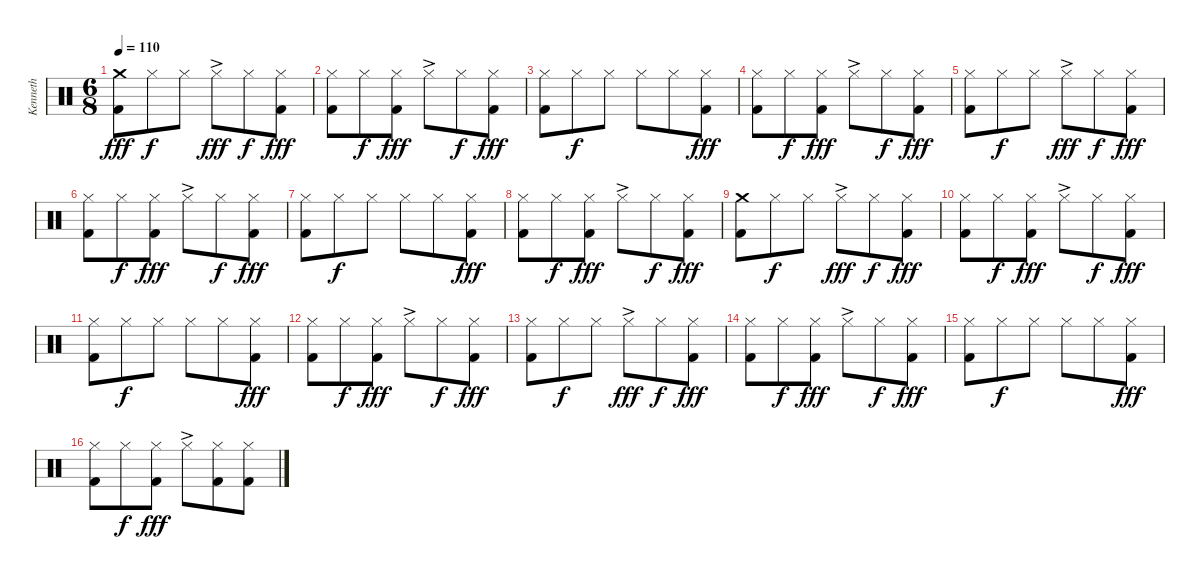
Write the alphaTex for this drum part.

\track ("Kenneth" "Kenneth") {instrument percussion}
\staff {score}
\articulation defaults
\ts (6 8)
\tempo 110
\clef neutral
\ks c
("Crash medium (hit)" "Kick (hit) 2").8{dy fff} "Hi-Hat (closed)".8{dy f} "Hi-Hat (closed)".8 "Hi-Hat (closed)"{ac}.8{dy fff} "Hi-Hat (closed)".8{dy f} ("Hi-Hat (closed)" "Kick (hit) 2").8{dy fff} |
("Hi-Hat (closed)" "Kick (hit) 2").8 "Hi-Hat (closed)".8{dy f} ("Hi-Hat (closed)" "Kick (hit) 2").8{dy fff} "Hi-Hat (closed)"{ac}.8 "Hi-Hat (closed)".8{dy f} ("Hi-Hat (closed)" "Kick (hit) 2").8{dy fff} |
("Hi-Hat (closed)" "Kick (hit) 2").8 "Hi-Hat (closed)".8{dy f} "Hi-Hat (closed)".8 "Hi-Hat (closed)".8 "Hi-Hat (closed)".8 ("Hi-Hat (closed)" "Kick (hit) 2").8{dy fff} |
("Hi-Hat (closed)" "Kick (hit) 2").8 "Hi-Hat (closed)".8{dy f} ("Hi-Hat (closed)" "Kick (hit) 2").8{dy fff} "Hi-Hat (closed)"{ac}.8 "Hi-Hat (closed)".8{dy f} ("Hi-Hat (closed)" "Kick (hit) 2").8{dy fff} |
("Hi-Hat (closed)" "Kick (hit) 2").8 "Hi-Hat (closed)".8{dy f} "Hi-Hat (closed)".8 "Hi-Hat (closed)"{ac}.8{dy fff} "Hi-Hat (closed)".8{dy f} ("Hi-Hat (closed)" "Kick (hit) 2").8{dy fff} |
("Hi-Hat (closed)" "Kick (hit) 2").8 "Hi-Hat (closed)".8{dy f} ("Hi-Hat (closed)" "Kick (hit) 2").8{dy fff} "Hi-Hat (closed)"{ac}.8 "Hi-Hat (closed)".8{dy f} ("Hi-Hat (closed)" "Kick (hit) 2").8{dy fff} |
("Hi-Hat (closed)" "Kick (hit) 2").8 "Hi-Hat (closed)".8{dy f} "Hi-Hat (closed)".8 "Hi-Hat (closed)".8 "Hi-Hat (closed)".8 ("Hi-Hat (closed)" "Kick (hit) 2").8{dy fff} |
("Hi-Hat (closed)" "Kick (hit) 2").8 "Hi-Hat (closed)".8{dy f} ("Hi-Hat (closed)" "Kick (hit) 2").8{dy fff} "Hi-Hat (closed)"{ac}.8 "Hi-Hat (closed)".8{dy f} ("Hi-Hat (closed)" "Kick (hit) 2").8{dy fff} |
("Crash medium (hit)" "Kick (hit) 2").8 "Hi-Hat (closed)".8{dy f} "Hi-Hat (closed)".8 "Hi-Hat (closed)"{ac}.8{dy fff} "Hi-Hat (closed)".8{dy f} ("Hi-Hat (closed)" "Kick (hit) 2").8{dy fff} |
("Hi-Hat (closed)" "Kick (hit) 2").8 "Hi-Hat (closed)".8{dy f} ("Hi-Hat (closed)" "Kick (hit) 2").8{dy fff} "Hi-Hat (closed)"{ac}.8 "Hi-Hat (closed)".8{dy f} ("Hi-Hat (closed)" "Kick (hit) 2").8{dy fff} |
("Hi-Hat (closed)" "Kick (hit) 2").8 "Hi-Hat (closed)".8{dy f} "Hi-Hat (closed)".8 "Hi-Hat (closed)".8 "Hi-Hat (closed)".8 ("Hi-Hat (closed)" "Kick (hit) 2").8{dy fff} |
("Hi-Hat (closed)" "Kick (hit) 2").8 "Hi-Hat (closed)".8{dy f} ("Hi-Hat (closed)" "Kick (hit) 2").8{dy fff} "Hi-Hat (closed)"{ac}.8 "Hi-Hat (closed)".8{dy f} ("Hi-Hat (closed)" "Kick (hit) 2").8{dy fff} |
("Hi-Hat (closed)" "Kick (hit) 2").8 "Hi-Hat (closed)".8{dy f} "Hi-Hat (closed)".8 "Hi-Hat (closed)"{ac}.8{dy fff} "Hi-Hat (closed)".8{dy f} ("Hi-Hat (closed)" "Kick (hit) 2").8{dy fff} |
("Hi-Hat (closed)" "Kick (hit) 2").8 "Hi-Hat (closed)".8{dy f} ("Hi-Hat (closed)" "Kick (hit) 2").8{dy fff} "Hi-Hat (closed)"{ac}.8 "Hi-Hat (closed)".8{dy f} ("Hi-Hat (closed)" "Kick (hit) 2").8{dy fff} |
("Hi-Hat (closed)" "Kick (hit) 2").8 "Hi-Hat (closed)".8{dy f} "Hi-Hat (closed)".8 "Hi-Hat (closed)".8 "Hi-Hat (closed)".8 ("Hi-Hat (closed)" "Kick (hit) 2").8{dy fff} |
("Hi-Hat (closed)" "Kick (hit) 2").8 "Hi-Hat (closed)".8{dy f} ("Hi-Hat (closed)" "Kick (hit) 2").8{dy fff} "Hi-Hat (closed)"{ac}.8 ("Hi-Hat (closed)" "Kick (hit) 2").8 ("Hi-Hat (closed)" "Kick (hit) 2").8
